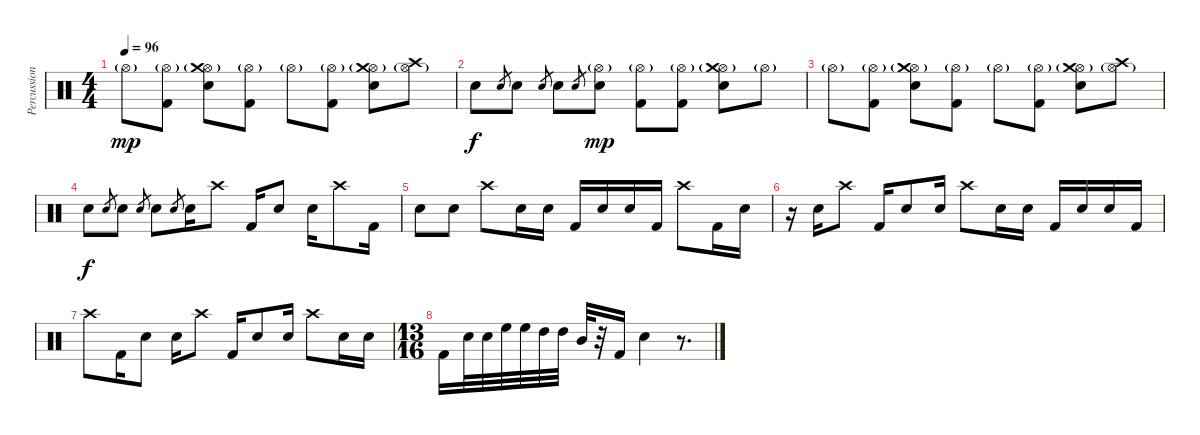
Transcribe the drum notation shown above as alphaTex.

\track ("Percussion" "Percussion") {instrument percussion}
\staff {score}
\articulation defaults
\ts (4 4)
\tempo 96
\clef neutral
\ks c "Hi-Hat (open)"{g}.8{dy mp}
("Hi-Hat (open)"{g} "Kick (hit) 2").8 ("Hi-Hat (open)"{g} "Crash medium (hit)" "Electric Snare (hit)").8 ("Hi-Hat (open)"{g} "Kick (hit) 2").8 "Hi-Hat (open)"{g}.8 ("Hi-Hat (open)"{g} "Kick (hit) 2").8 ("Hi-Hat (open)"{g} "Crash medium (hit)" "Electric Snare (hit)").8 ("Hi-Hat (open)"{g} "Crash high (hit)").8 |
"Electric Snare (hit)".8{dy f} "Electric Snare (hit)".8{gr} "Electric Snare (hit)".8 "Electric Snare (hit)".8{gr} "Electric Snare (hit)".8 "Electric Snare (hit)".8{gr} ("Hi-Hat (open)"{g} "Electric Snare (hit)").8{dy mp} ("Hi-Hat (open)"{g} "Kick (hit) 2").8 ("Hi-Hat (open)"{g} "Kick (hit) 2").8 ("Hi-Hat (open)"{g} "Crash medium (hit)" "Electric Snare (hit)").8 "Hi-Hat (open)"{g}.8 |
"Hi-Hat (open)"{g}.8 ("Hi-Hat (open)"{g} "Kick (hit) 2").8 ("Hi-Hat (open)"{g} "Crash medium (hit)" "Electric Snare (hit)").8 ("Hi-Hat (open)"{g} "Kick (hit) 2").8 "Hi-Hat (open)"{g}.8 ("Hi-Hat (open)"{g} "Kick (hit) 2").8 ("Hi-Hat (open)"{g} "Crash medium (hit)" "Electric Snare (hit)").8 ("Hi-Hat (open)"{g} "Crash high (hit)").8 |
"Electric Snare (hit)".8{dy f} "Electric Snare (hit)".8{gr} "Electric Snare (hit)".8 "Electric Snare (hit)".8{gr} "Electric Snare (hit)".8 "Electric Snare (hit)".8{gr} "Electric Snare (hit)".16 "Crash high (hit)".8 "Kick (hit) 2".16 "Electric Snare (hit)".8 "Electric Snare (hit)".16 "Crash high (hit)".8 "Kick (hit) 2".16 |
"Electric Snare (hit)".8 "Electric Snare (hit)".8 "Crash high (hit)".8 "Electric Snare (hit)".16 "Electric Snare (hit)".16 "Kick (hit) 2".16 "Electric Snare (hit)".16 "Electric Snare (hit)".16 "Kick (hit) 2".16 "Crash high (hit)".8 "Kick (hit) 2".16 "Electric Snare (hit)".16 |
r.16 "Electric Snare (hit)".16 "Crash high (hit)".8 "Kick (hit) 2".16 "Electric Snare (hit)".8 "Electric Snare (hit)".16 "Crash high (hit)".8 "Electric Snare (hit)".16 "Electric Snare (hit)".16 "Kick (hit) 2".16 "Electric Snare (hit)".16 "Electric Snare (hit)".16 "Kick (hit) 2".16 |
"Crash high (hit)".8 "Kick (hit) 2".16 "Electric Snare (hit)".8 "Electric Snare (hit)".16 "Crash high (hit)".8 "Kick (hit) 2".16 "Electric Snare (hit)".8 "Electric Snare (hit)".16 "Crash high (hit)".8 "Electric Snare (hit)".16 "Electric Snare (hit)".16 |
\ts (13 16)
"Kick (hit) 2".16 "Electric Snare (hit)".32 "Electric Snare (hit)".32 "High Floor Tom (hit)".32 "High Floor Tom (hit)".32 "High Tom (hit)".32 "High Tom (hit)".32 "Mid Tom (hit)".32 r.32 "Kick (hit) 2".16 "Electric Snare (hit)".4 r.8{d}
